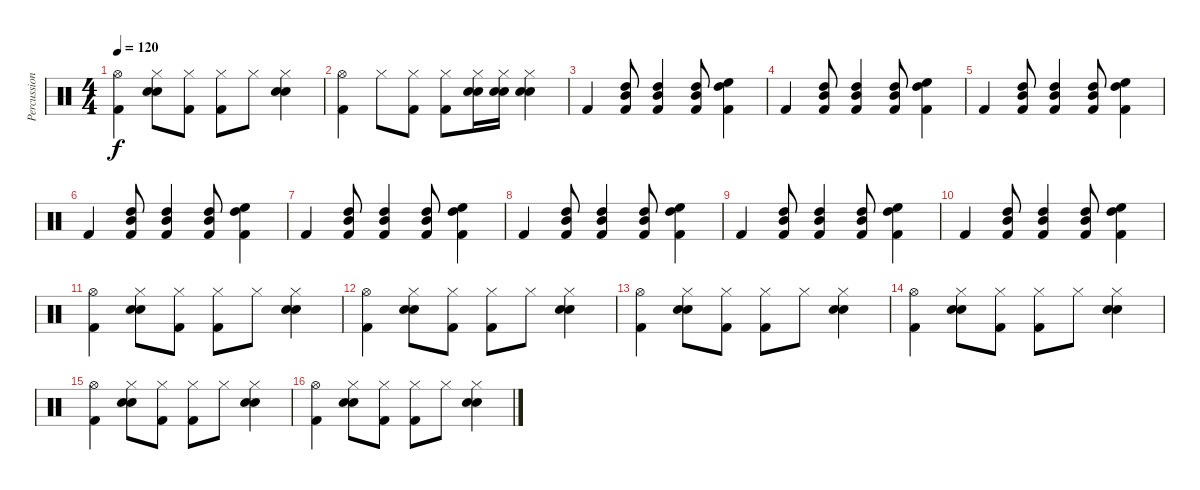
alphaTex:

\track ("Percussions" "Percussion") {instrument percussion}
\staff {score}
\articulation defaults
\ts (4 4)
\tempo 120
\clef neutral
\ks c
("Hi-Hat (open)" "Kick (hit) 2").4{dy f} ("Hi-Hat (closed)" "Electric Snare (hit)" "Snare (hit) 2").8 ("Hi-Hat (closed)" "Kick (hit) 2").8 ("Hi-Hat (closed)" "Kick (hit) 2").8 "Hi-Hat (closed)".8 ("Hi-Hat (closed)" "Electric Snare (hit)" "Snare (hit) 2").4 |
("Hi-Hat (open)" "Kick (hit) 2").4 "Hi-Hat (closed)".8 ("Hi-Hat (closed)" "Kick (hit) 2").8 ("Hi-Hat (closed)" "Kick (hit) 2").8 ("Hi-Hat (closed)" "Electric Snare (hit)" "Snare (hit) 2").16 ("Hi-Hat (closed)" "Electric Snare (hit)" "Snare (hit) 2").16 ("Hi-Hat (closed)" "Electric Snare (hit)" "Snare (hit) 2").4 |
"Kick (hit) 2".4 ("High Tom (hit)" "Mid Tom (hit)" "Kick (hit) 2").8 ("High Tom (hit)" "Mid Tom (hit)" "Kick (hit) 2").4 ("High Tom (hit)" "Mid Tom (hit)" "Kick (hit) 2").8 ("High Floor Tom (hit)" "High Tom (hit)" "Kick (hit) 2").4 |
"Kick (hit) 2".4 ("High Tom (hit)" "Mid Tom (hit)" "Kick (hit) 2").8 ("High Tom (hit)" "Mid Tom (hit)" "Kick (hit) 2").4 ("High Tom (hit)" "Mid Tom (hit)" "Kick (hit) 2").8 ("High Floor Tom (hit)" "High Tom (hit)" "Kick (hit) 2").4 |
"Kick (hit) 2".4 ("High Tom (hit)" "Mid Tom (hit)" "Kick (hit) 2").8 ("High Tom (hit)" "Mid Tom (hit)" "Kick (hit) 2").4 ("High Tom (hit)" "Mid Tom (hit)" "Kick (hit) 2").8 ("High Floor Tom (hit)" "High Tom (hit)" "Kick (hit) 2").4 |
"Kick (hit) 2".4 ("High Tom (hit)" "Mid Tom (hit)" "Kick (hit) 2").8 ("High Tom (hit)" "Mid Tom (hit)" "Kick (hit) 2").4 ("High Tom (hit)" "Mid Tom (hit)" "Kick (hit) 2").8 ("High Floor Tom (hit)" "High Tom (hit)" "Kick (hit) 2").4 |
"Kick (hit) 2".4 ("High Tom (hit)" "Mid Tom (hit)" "Kick (hit) 2").8 ("High Tom (hit)" "Mid Tom (hit)" "Kick (hit) 2").4 ("High Tom (hit)" "Mid Tom (hit)" "Kick (hit) 2").8 ("High Floor Tom (hit)" "High Tom (hit)" "Kick (hit) 2").4 |
"Kick (hit) 2".4 ("High Tom (hit)" "Mid Tom (hit)" "Kick (hit) 2").8 ("High Tom (hit)" "Mid Tom (hit)" "Kick (hit) 2").4 ("High Tom (hit)" "Mid Tom (hit)" "Kick (hit) 2").8 ("High Floor Tom (hit)" "High Tom (hit)" "Kick (hit) 2").4 |
"Kick (hit) 2".4 ("High Tom (hit)" "Mid Tom (hit)" "Kick (hit) 2").8 ("High Tom (hit)" "Mid Tom (hit)" "Kick (hit) 2").4 ("High Tom (hit)" "Mid Tom (hit)" "Kick (hit) 2").8 ("High Floor Tom (hit)" "High Tom (hit)" "Kick (hit) 2").4 |
"Kick (hit) 2".4 ("High Tom (hit)" "Mid Tom (hit)" "Kick (hit) 2").8 ("High Tom (hit)" "Mid Tom (hit)" "Kick (hit) 2").4 ("High Tom (hit)" "Mid Tom (hit)" "Kick (hit) 2").8 ("High Floor Tom (hit)" "High Tom (hit)" "Kick (hit) 2").4 |
("Hi-Hat (open)" "Kick (hit) 2").4 ("Hi-Hat (closed)" "Electric Snare (hit)" "Snare (hit) 2").8 ("Hi-Hat (closed)" "Kick (hit) 2").8 ("Hi-Hat (closed)" "Kick (hit) 2").8 "Hi-Hat (closed)".8 ("Hi-Hat (closed)" "Electric Snare (hit)" "Snare (hit) 2").4 |
("Hi-Hat (open)" "Kick (hit) 2").4 ("Hi-Hat (closed)" "Electric Snare (hit)" "Snare (hit) 2").8 ("Hi-Hat (closed)" "Kick (hit) 2").8 ("Hi-Hat (closed)" "Kick (hit) 2").8 "Hi-Hat (closed)".8 ("Hi-Hat (closed)" "Electric Snare (hit)" "Snare (hit) 2").4 |
("Hi-Hat (open)" "Kick (hit) 2").4 ("Hi-Hat (closed)" "Electric Snare (hit)" "Snare (hit) 2").8 ("Hi-Hat (closed)" "Kick (hit) 2").8 ("Hi-Hat (closed)" "Kick (hit) 2").8 "Hi-Hat (closed)".8 ("Hi-Hat (closed)" "Electric Snare (hit)" "Snare (hit) 2").4 |
("Hi-Hat (open)" "Kick (hit) 2").4 ("Hi-Hat (closed)" "Electric Snare (hit)" "Snare (hit) 2").8 ("Hi-Hat (closed)" "Kick (hit) 2").8 ("Hi-Hat (closed)" "Kick (hit) 2").8 "Hi-Hat (closed)".8 ("Hi-Hat (closed)" "Electric Snare (hit)" "Snare (hit) 2").4 |
("Hi-Hat (open)" "Kick (hit) 2").4 ("Hi-Hat (closed)" "Electric Snare (hit)" "Snare (hit) 2").8 ("Hi-Hat (closed)" "Kick (hit) 2").8 ("Hi-Hat (closed)" "Kick (hit) 2").8 "Hi-Hat (closed)".8 ("Hi-Hat (closed)" "Electric Snare (hit)" "Snare (hit) 2").4 |
("Hi-Hat (open)" "Kick (hit) 2").4 ("Hi-Hat (closed)" "Electric Snare (hit)" "Snare (hit) 2").8 ("Hi-Hat (closed)" "Kick (hit) 2").8 ("Hi-Hat (closed)" "Kick (hit) 2").8 "Hi-Hat (closed)".8 ("Hi-Hat (closed)" "Electric Snare (hit)" "Snare (hit) 2").4
